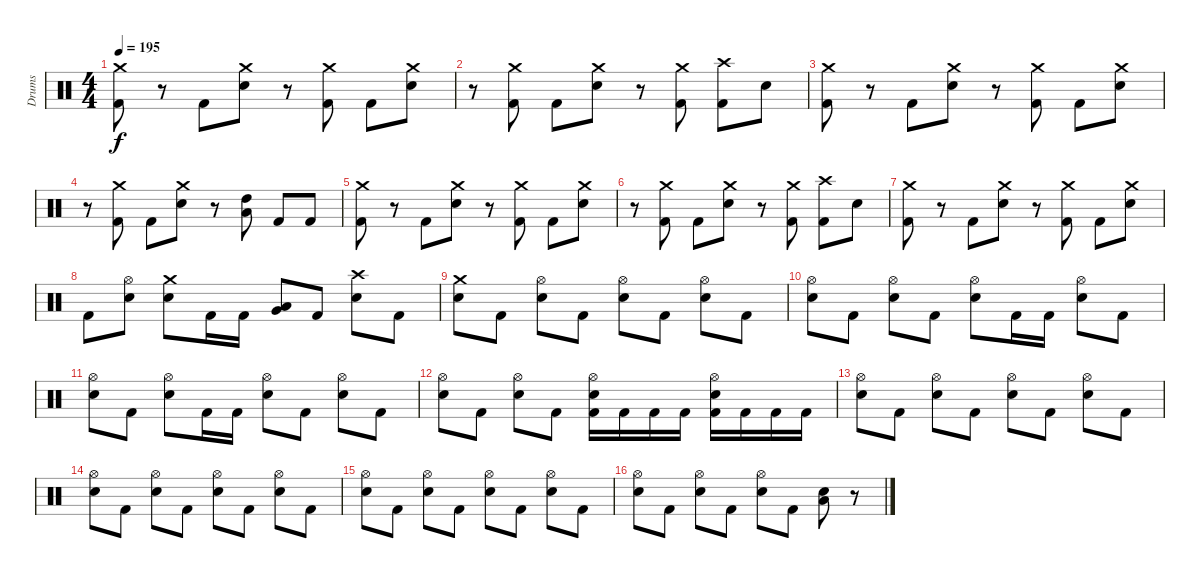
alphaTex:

\track ("Drums" "Drums") {instrument percussion}
\staff {score}
\articulation defaults
\ts (4 4)
\tempo 195
\clef neutral
\ks c
("Crash medium (hit)" "Kick (hit) 2").8{dy f} r.8 "Kick (hit) 2".8 ("Crash medium (hit)" "Electric Snare (hit)").8 r.8 ("Crash medium (hit)" "Kick (hit) 2").8 "Kick (hit) 2".8 ("Crash medium (hit)" "Electric Snare (hit)").8 |
r.8 ("Crash medium (hit)" "Kick (hit) 2").8 "Kick (hit) 2".8 ("Crash medium (hit)" "Electric Snare (hit)").8 r.8 ("Crash medium (hit)" "Kick (hit) 2").8 ("Crash high (hit)" "Kick (hit) 2").8 "Electric Snare (hit)".8 |
("Crash medium (hit)" "Kick (hit) 2").8 r.8 "Kick (hit) 2".8 ("Crash medium (hit)" "Electric Snare (hit)").8 r.8 ("Crash medium (hit)" "Kick (hit) 2").8 "Kick (hit) 2".8 ("Crash medium (hit)" "Electric Snare (hit)").8 |
r.8 ("Crash medium (hit)" "Kick (hit) 2").8 "Kick (hit) 2".8 ("Crash medium (hit)" "Electric Snare (hit)").8 r.8 ("High Tom (hit)" "Low Tom (hit)").8 "Kick (hit) 2".8 "Kick (hit) 2".8 |
("Crash medium (hit)" "Kick (hit) 2").8 r.8 "Kick (hit) 2".8 ("Crash medium (hit)" "Electric Snare (hit)").8 r.8 ("Crash medium (hit)" "Kick (hit) 2").8 "Kick (hit) 2".8 ("Crash medium (hit)" "Electric Snare (hit)").8 |
r.8 ("Crash medium (hit)" "Kick (hit) 2").8 "Kick (hit) 2".8 ("Crash medium (hit)" "Electric Snare (hit)").8 r.8 ("Crash medium (hit)" "Kick (hit) 2").8 ("Crash high (hit)" "Kick (hit) 2").8 "Electric Snare (hit)".8 |
("Crash medium (hit)" "Kick (hit) 2").8 r.8 "Kick (hit) 2".8 ("Crash medium (hit)" "Electric Snare (hit)").8 r.8 ("Crash medium (hit)" "Kick (hit) 2").8 "Kick (hit) 2".8 ("Crash medium (hit)" "Electric Snare (hit)").8 |
"Kick (hit) 2".8 ("Hi-Hat (open)" "Electric Snare (hit)").8 ("Crash medium (hit)" "Electric Snare (hit)").8 "Kick (hit) 2".16 "Kick (hit) 2".16 ("Low Tom (hit)" "Very Low Tom (hit)").8 "Kick (hit) 2".8 ("Crash high (hit)" "Electric Snare (hit)").8 "Kick (hit) 2".8 |
("Crash medium (hit)" "Electric Snare (hit)").8 "Kick (hit) 2".8 ("Hi-Hat (open)" "Electric Snare (hit)").8 "Kick (hit) 2".8 ("Hi-Hat (open)" "Electric Snare (hit)").8 "Kick (hit) 2".8 ("Hi-Hat (open)" "Electric Snare (hit)").8 "Kick (hit) 2".8 |
("Hi-Hat (open)" "Electric Snare (hit)").8 "Kick (hit) 2".8 ("Hi-Hat (open)" "Electric Snare (hit)").8 "Kick (hit) 2".8 ("Hi-Hat (open)" "Electric Snare (hit)").8 "Kick (hit) 2".16 "Kick (hit) 2".16 ("Hi-Hat (open)" "Electric Snare (hit)").8 "Kick (hit) 2".8 |
("Hi-Hat (open)" "Electric Snare (hit)").8 "Kick (hit) 2".8 ("Hi-Hat (open)" "Electric Snare (hit)").8 "Kick (hit) 2".16 "Kick (hit) 2".16 ("Hi-Hat (open)" "Electric Snare (hit)").8 "Kick (hit) 2".8 ("Hi-Hat (open)" "Electric Snare (hit)").8 "Kick (hit) 2".8 |
("Hi-Hat (open)" "Electric Snare (hit)").8 "Kick (hit) 2".8 ("Hi-Hat (open)" "Electric Snare (hit)").8 "Kick (hit) 2".8 ("Hi-Hat (open)" "Electric Snare (hit)" "Kick (hit) 2").16 "Kick (hit) 2".16 "Kick (hit) 2".16 "Kick (hit) 2".16 ("Hi-Hat (open)" "Electric Snare (hit)" "Kick (hit) 2").16 "Kick (hit) 2".16 "Kick (hit) 2".16 "Kick (hit) 2".16 |
("Hi-Hat (open)" "Electric Snare (hit)").8 "Kick (hit) 2".8 ("Hi-Hat (open)" "Electric Snare (hit)").8 "Kick (hit) 2".8 ("Hi-Hat (open)" "Electric Snare (hit)").8 "Kick (hit) 2".8 ("Hi-Hat (open)" "Electric Snare (hit)").8 "Kick (hit) 2".8 |
("Hi-Hat (open)" "Electric Snare (hit)").8 "Kick (hit) 2".8 ("Hi-Hat (open)" "Electric Snare (hit)").8 "Kick (hit) 2".8 ("Hi-Hat (open)" "Electric Snare (hit)").8 "Kick (hit) 2".8 ("Hi-Hat (open)" "Electric Snare (hit)").8 "Kick (hit) 2".8 |
("Hi-Hat (open)" "Electric Snare (hit)").8 "Kick (hit) 2".8 ("Hi-Hat (open)" "Electric Snare (hit)").8 "Kick (hit) 2".8 ("Hi-Hat (open)" "Electric Snare (hit)").8 "Kick (hit) 2".8 ("Hi-Hat (open)" "Electric Snare (hit)").8 "Kick (hit) 2".8 |
("Hi-Hat (open)" "Electric Snare (hit)").8 "Kick (hit) 2".8 ("Hi-Hat (open)" "Electric Snare (hit)").8 "Kick (hit) 2".8 ("Hi-Hat (open)" "Electric Snare (hit)").8 "Kick (hit) 2".8 ("Low Tom (hit)" "Electric Snare (hit)").8 r.8
